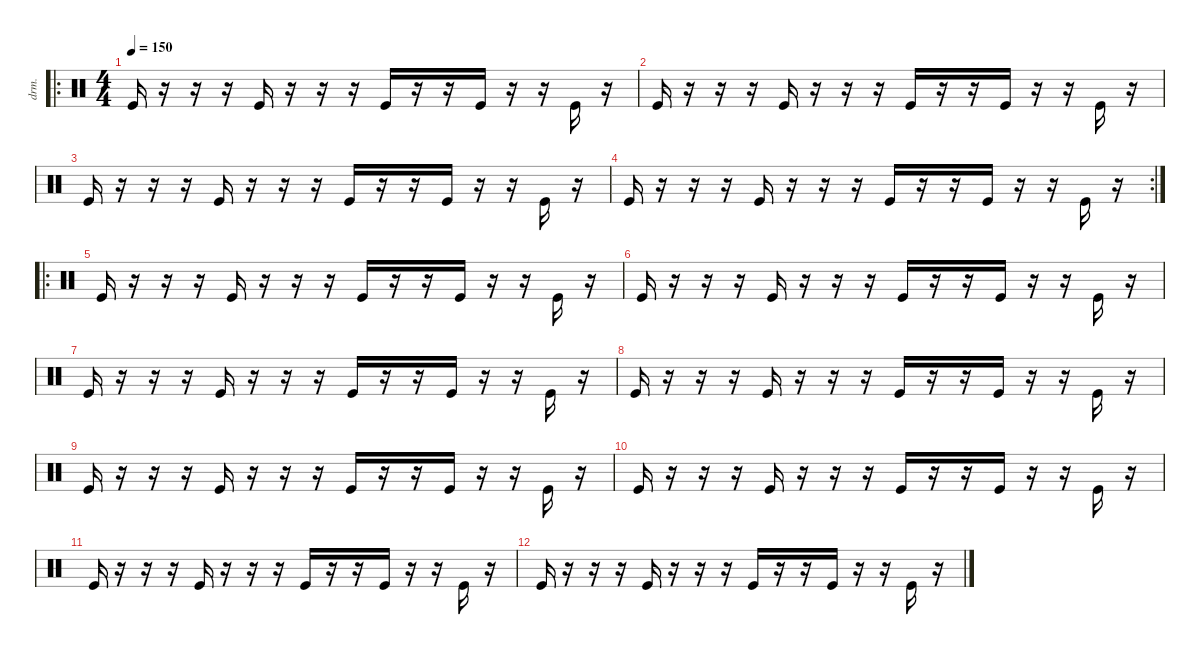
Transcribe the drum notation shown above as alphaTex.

\defaultSystemsLayout 4
\hideDynamics
\bracketExtendMode nobrackets
\track ("Drumkit" "drm.") {instrument percussion}
\staff {score}
\articulation defaults
\ro
\ts (4 4)
\tempo 150
\clef neutral
\ks c "Kick (hit)".16{dy mf beam Up}
r.16{beam Down} r.16{beam Down} r.16{beam Down} "Kick (hit)".16{beam Up} r.16{beam Down} r.16{beam Down} r.16{beam Down} "Kick (hit)".16{beam Up} r.16{beam Up} r.16{beam Up} "Kick (hit)".16{beam Up} r.16{beam Down} r.16{beam Down} "Kick (hit)".16{beam Up} r.16{beam Down} |
"Kick (hit)".16{beam Up} r.16{beam Down} r.16{beam Down} r.16{beam Down} "Kick (hit)".16{beam Up} r.16{beam Down} r.16{beam Down} r.16{beam Down} "Kick (hit)".16{beam Up} r.16{beam Up} r.16{beam Up} "Kick (hit)".16{beam Up} r.16{beam Down} r.16{beam Down} "Kick (hit)".16{beam Up} r.16{beam Down} |
"Kick (hit)".16{beam Up} r.16{beam Down} r.16{beam Down} r.16{beam Down} "Kick (hit)".16{beam Up} r.16{beam Down} r.16{beam Down} r.16{beam Down} "Kick (hit)".16{beam Up} r.16{beam Up} r.16{beam Up} "Kick (hit)".16{beam Up} r.16{beam Down} r.16{beam Down} "Kick (hit)".16{beam Up} r.16{beam Down} |
\rc 2 "Kick (hit)".16{beam Up}
r.16{beam Down} r.16{beam Down} r.16{beam Down} "Kick (hit)".16{beam Up} r.16{beam Down} r.16{beam Down} r.16{beam Down} "Kick (hit)".16{beam Up} r.16{beam Up} r.16{beam Up} "Kick (hit)".16{beam Up} r.16{beam Down} r.16{beam Down} "Kick (hit)".16{beam Up} r.16{beam Down} |
\ro "Kick (hit)".16{beam Up}
r.16{beam Down} r.16{beam Down} r.16{beam Down} "Kick (hit)".16{beam Up} r.16{beam Down} r.16{beam Down} r.16{beam Down} "Kick (hit)".16{beam Up} r.16{beam Up} r.16{beam Up} "Kick (hit)".16{beam Up} r.16{beam Down} r.16{beam Down} "Kick (hit)".16{beam Up} r.16{beam Down} |
"Kick (hit)".16{beam Up} r.16{beam Down} r.16{beam Down} r.16{beam Down} "Kick (hit)".16{beam Up} r.16{beam Down} r.16{beam Down} r.16{beam Down} "Kick (hit)".16{beam Up} r.16{beam Up} r.16{beam Up} "Kick (hit)".16{beam Up} r.16{beam Down} r.16{beam Down} "Kick (hit)".16{beam Up} r.16{beam Down} |
"Kick (hit)".16{beam Up} r.16{beam Down} r.16{beam Down} r.16{beam Down} "Kick (hit)".16{beam Up} r.16{beam Down} r.16{beam Down} r.16{beam Down} "Kick (hit)".16{beam Up} r.16{beam Up} r.16{beam Up} "Kick (hit)".16{beam Up} r.16{beam Down} r.16{beam Down} "Kick (hit)".16{beam Up} r.16{beam Down} |
"Kick (hit)".16{beam Up} r.16{beam Down} r.16{beam Down} r.16{beam Down} "Kick (hit)".16{beam Up} r.16{beam Down} r.16{beam Down} r.16{beam Down} "Kick (hit)".16{beam Up} r.16{beam Up} r.16{beam Up} "Kick (hit)".16{beam Up} r.16{beam Down} r.16{beam Down} "Kick (hit)".16{beam Up} r.16{beam Down} |
"Kick (hit)".16{beam Up} r.16{beam Down} r.16{beam Down} r.16{beam Down} "Kick (hit)".16{beam Up} r.16{beam Down} r.16{beam Down} r.16{beam Down} "Kick (hit)".16{beam Up} r.16{beam Up} r.16{beam Up} "Kick (hit)".16{beam Up} r.16{beam Down} r.16{beam Down} "Kick (hit)".16{beam Up} r.16{beam Down} |
"Kick (hit)".16{beam Up} r.16{beam Down} r.16{beam Down} r.16{beam Down} "Kick (hit)".16{beam Up} r.16{beam Down} r.16{beam Down} r.16{beam Down} "Kick (hit)".16{beam Up} r.16{beam Up} r.16{beam Up} "Kick (hit)".16{beam Up} r.16{beam Down} r.16{beam Down} "Kick (hit)".16{beam Up} r.16{beam Down} |
"Kick (hit)".16{beam Up} r.16{beam Down} r.16{beam Down} r.16{beam Down} "Kick (hit)".16{beam Up} r.16{beam Down} r.16{beam Down} r.16{beam Down} "Kick (hit)".16{beam Up} r.16{beam Up} r.16{beam Up} "Kick (hit)".16{beam Up} r.16{beam Down} r.16{beam Down} "Kick (hit)".16{beam Up} r.16{beam Down} |
"Kick (hit)".16{beam Up} r.16{beam Down} r.16{beam Down} r.16{beam Down} "Kick (hit)".16{beam Up} r.16{beam Down} r.16{beam Down} r.16{beam Down} "Kick (hit)".16{beam Up} r.16{beam Up} r.16{beam Up} "Kick (hit)".16{beam Up} r.16{beam Down} r.16{beam Down} "Kick (hit)".16{beam Up} r.16{beam Down}
